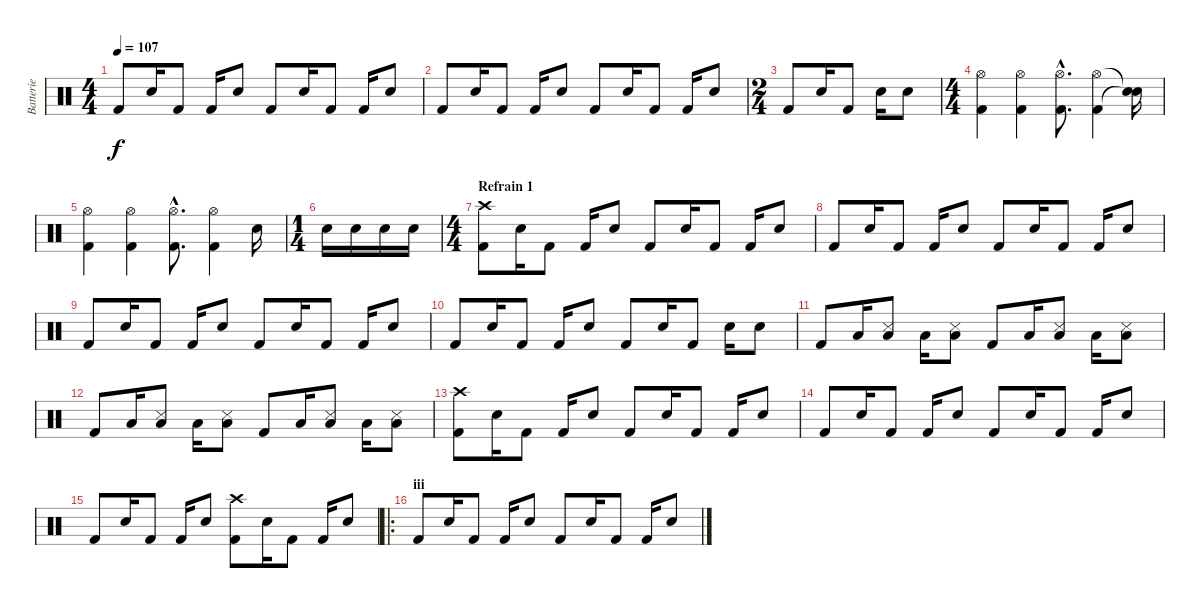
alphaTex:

\track ("Batterie" "Batterie") {instrument percussion}
\staff {score}
\articulation defaults
\ts (4 4)
\tempo 107
\clef neutral
\ks c "Kick (hit) 2".8{dy f} "Electric Snare (hit)".16 "Kick (hit) 2".8 "Kick (hit) 2".16 "Electric Snare (hit)".8 "Kick (hit) 2".8 "Electric Snare (hit)".16 "Kick (hit) 2".8 "Kick (hit) 2".16 "Electric Snare (hit)".8
|
"Kick (hit) 2".8 "Electric Snare (hit)".16 "Kick (hit) 2".8 "Kick (hit) 2".16 "Electric Snare (hit)".8 "Kick (hit) 2".8 "Electric Snare (hit)".16 "Kick (hit) 2".8 "Kick (hit) 2".16 "Electric Snare (hit)".8 |
\ts (2 4)
"Kick (hit) 2".8 "Electric Snare (hit)".16 "Kick (hit) 2".8 "Electric Snare (hit)".16 "Electric Snare (hit)".8 |
\ts (4 4)
("Hi-Hat (open)" "Kick (hit) 2").4 ("Hi-Hat (open)" "Kick (hit) 2").4 ("Hi-Hat (open)"{hac} "Kick (hit) 2"{hac}).8{d} ("Hi-Hat (open)" "Kick (hit) 2").4 ("Snare (hit)"{t} "Snare (hit)"{t}).16 |
("Hi-Hat (open)" "Kick (hit) 2").4 ("Hi-Hat (open)" "Kick (hit) 2").4 ("Hi-Hat (open)"{hac} "Kick (hit) 2"{hac}).8{d} ("Hi-Hat (open)" "Kick (hit) 2").4 "Electric Snare (hit)".16 |
\ts (1 4)
"Electric Snare (hit)".16 "Electric Snare (hit)".16 "Electric Snare (hit)".16 "Electric Snare (hit)".16 |
\ts (4 4)
\section ("" "Refrain 1")
("Crash high (hit)" "Kick (hit) 2").8 "Electric Snare (hit)".16 "Kick (hit) 2".8 "Kick (hit) 2".16 "Electric Snare (hit)".8 "Kick (hit) 2".8 "Electric Snare (hit)".16 "Kick (hit) 2".8 "Kick (hit) 2".16 "Electric Snare (hit)".8 |
"Kick (hit) 2".8 "Electric Snare (hit)".16 "Kick (hit) 2".8 "Kick (hit) 2".16 "Electric Snare (hit)".8 "Kick (hit) 2".8 "Electric Snare (hit)".16 "Kick (hit) 2".8 "Kick (hit) 2".16 "Electric Snare (hit)".8 |
"Kick (hit) 2".8 "Electric Snare (hit)".16 "Kick (hit) 2".8 "Kick (hit) 2".16 "Electric Snare (hit)".8 "Kick (hit) 2".8 "Electric Snare (hit)".16 "Kick (hit) 2".8 "Kick (hit) 2".16 "Electric Snare (hit)".8 |
"Kick (hit) 2".8 "Electric Snare (hit)".16 "Kick (hit) 2".8 "Kick (hit) 2".16 "Electric Snare (hit)".8 "Kick (hit) 2".8 "Electric Snare (hit)".16 "Kick (hit) 2".8 "Electric Snare (hit)".16 "Electric Snare (hit)".8 |
"Kick (hit) 2".8 "Low Tom (hit)".16 ("Snare (side stick) 3" "Low Tom (hit)").8 "Low Tom (hit)".16 ("Snare (side stick) 3" "Low Tom (hit)").8 "Kick (hit) 2".8 "Low Tom (hit)".16 ("Snare (side stick) 3" "Low Tom (hit)").8 "Low Tom (hit)".16 ("Snare (side stick) 3" "Low Tom (hit)").8 |
"Kick (hit) 2".8 "Low Tom (hit)".16 ("Snare (side stick) 3" "Low Tom (hit)").8 "Low Tom (hit)".16 ("Snare (side stick) 3" "Low Tom (hit)").8 "Kick (hit) 2".8 "Low Tom (hit)".16 ("Snare (side stick) 3" "Low Tom (hit)").8 "Low Tom (hit)".16 ("Snare (side stick) 3" "Low Tom (hit)").8 |
("Crash high (hit)" "Kick (hit) 2").8 "Electric Snare (hit)".16 "Kick (hit) 2".8 "Kick (hit) 2".16 "Electric Snare (hit)".8 "Kick (hit) 2".8 "Electric Snare (hit)".16 "Kick (hit) 2".8 "Kick (hit) 2".16 "Electric Snare (hit)".8 |
"Kick (hit) 2".8 "Electric Snare (hit)".16 "Kick (hit) 2".8 "Kick (hit) 2".16 "Electric Snare (hit)".8 "Kick (hit) 2".8 "Electric Snare (hit)".16 "Kick (hit) 2".8 "Kick (hit) 2".16 "Electric Snare (hit)".8 |
"Kick (hit) 2".8 "Electric Snare (hit)".16 "Kick (hit) 2".8 "Kick (hit) 2".16 "Electric Snare (hit)".8 ("Crash high (hit)" "Kick (hit) 2").8 "Electric Snare (hit)".16 "Kick (hit) 2".8 "Kick (hit) 2".16 "Electric Snare (hit)".8 |
\ro
\section ("" "iii")
"Kick (hit) 2".8 "Electric Snare (hit)".16 "Kick (hit) 2".8 "Kick (hit) 2".16 "Electric Snare (hit)".8 "Kick (hit) 2".8 "Electric Snare (hit)".16 "Kick (hit) 2".8 "Kick (hit) 2".16 "Electric Snare (hit)".8
